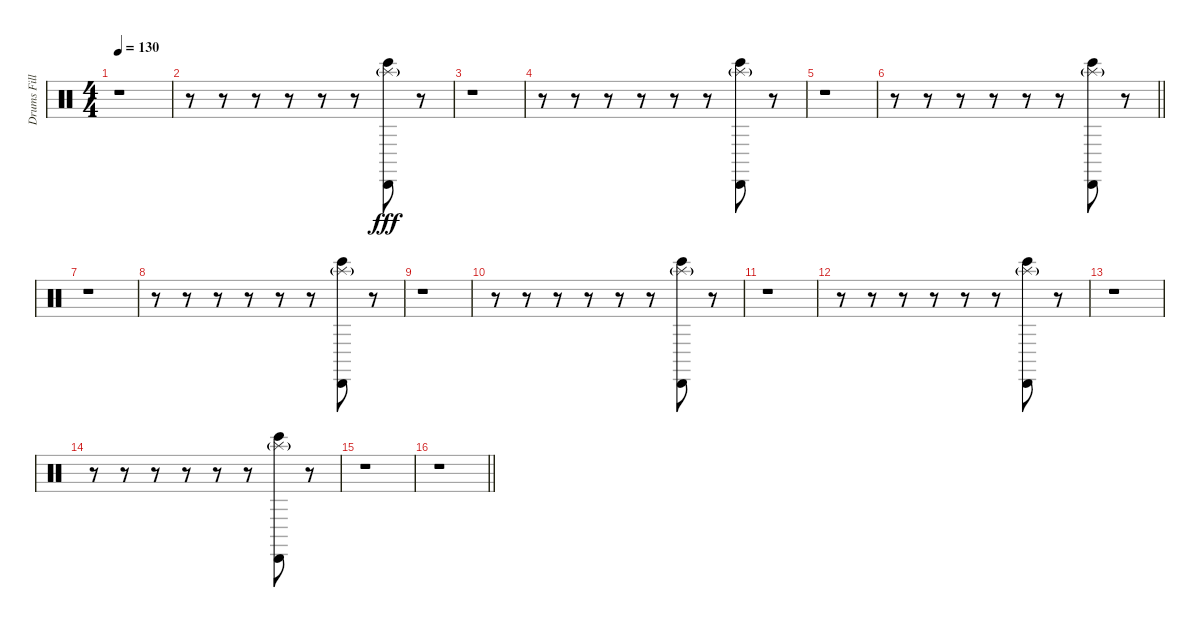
\track ("Drums Fill" "Drums Fill") {instrument percussion}
\staff {score}
\articulation defaults
\ts (4 4)
\tempo 130
\clef neutral
\ks c
r.1{dy fff} |
r.8 r.8 r.8 r.8 r.8 r.8 ("Splash (hit)"{g} "Cabasa (hit)" "Bongo High (hit)").8 r.8 |
r.1 |
r.8 r.8 r.8 r.8 r.8 r.8 ("Splash (hit)"{g} "Cabasa (hit)" "Bongo High (hit)").8 r.8 |
r.1 |
\barLineRight lightlight
r.8 r.8 r.8 r.8 r.8 r.8 ("Splash (hit)"{g} "Cabasa (hit)" "Bongo High (hit)").8 r.8 |
r.1 |
r.8 r.8 r.8 r.8 r.8 r.8 ("Splash (hit)"{g} "Cabasa (hit)" "Bongo High (hit)").8 r.8 |
r.1 |
r.8 r.8 r.8 r.8 r.8 r.8 ("Splash (hit)"{g} "Cabasa (hit)" "Bongo High (hit)").8 r.8 |
r.1 |
r.8 r.8 r.8 r.8 r.8 r.8 ("Splash (hit)"{g} "Cabasa (hit)" "Bongo High (hit)").8 r.8 |
r.1 |
r.8 r.8 r.8 r.8 r.8 r.8 ("Splash (hit)"{g} "Cabasa (hit)" "Bongo High (hit)").8 r.8 |
r.1 |
\barLineRight lightlight
r.1
